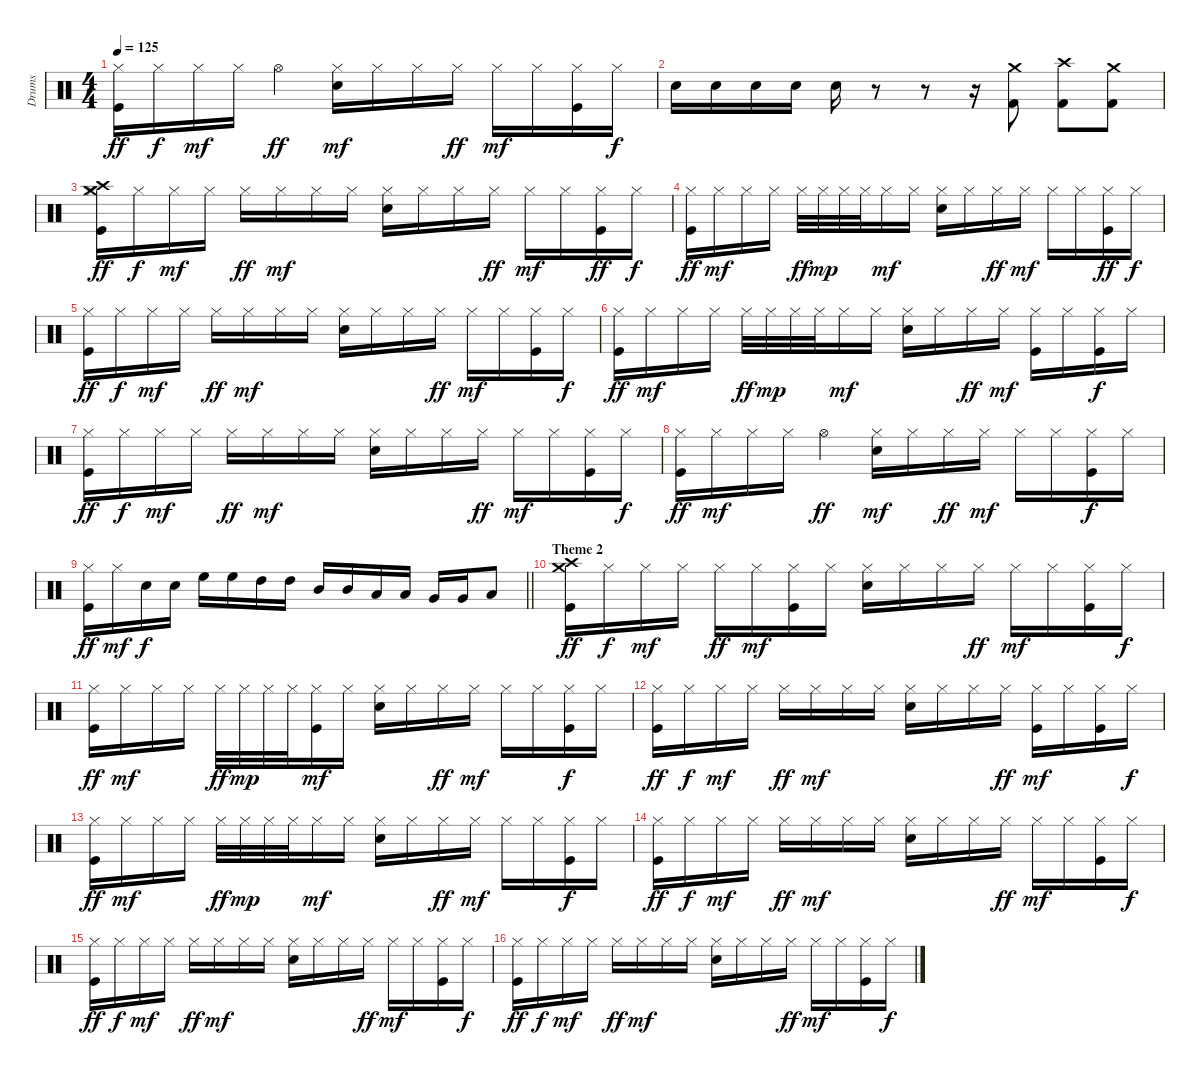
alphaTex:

\track ("Drums" "Drums") {instrument percussion}
\staff {score}
\articulation defaults
\ts (4 4)
\tempo 125
\clef neutral
\ks c
("Hi-Hat (closed)" "Kick (hit)").16{dy ff} "Hi-Hat (closed)".16{dy f} "Hi-Hat (closed)".16{dy mf} "Hi-Hat (closed)".16 "Hi-Hat (open)".4{dy ff} ("Hi-Hat (closed)" "Electric Snare (hit)").16{dy mf} "Hi-Hat (closed)".16 "Hi-Hat (closed)".16 "Hi-Hat (closed)".16{dy ff} "Hi-Hat (closed)".16{dy mf} "Hi-Hat (closed)".16 ("Hi-Hat (closed)" "Kick (hit)").16 "Hi-Hat (closed)".16{dy f} |
"Electric Snare (hit)".16 "Electric Snare (hit)".16 "Electric Snare (hit)".16 "Electric Snare (hit)".16 "Electric Snare (hit)".16 r.8 r.8 r.16 ("Crash medium (hit)" "Kick (hit) 2").8 ("Crash high (hit)" "Kick (hit) 2").8 ("Crash medium (hit)" "Kick (hit) 2").8 |
("Hi-Hat (closed)" "Kick (hit)" "Crash medium (hit)" "Crash high (hit)").16{dy ff} "Hi-Hat (closed)".16{dy f} "Hi-Hat (closed)".16{dy mf} "Hi-Hat (closed)".16 "Hi-Hat (closed)".16{dy ff} "Hi-Hat (closed)".16{dy mf} "Hi-Hat (closed)".16 "Hi-Hat (closed)".16 ("Hi-Hat (closed)" "Electric Snare (hit)").16 "Hi-Hat (closed)".16 "Hi-Hat (closed)".16 "Hi-Hat (closed)".16{dy ff} "Hi-Hat (closed)".16{dy mf} "Hi-Hat (closed)".16 ("Hi-Hat (closed)" "Kick (hit)").16{dy ff} "Hi-Hat (closed)".16{dy f} |
("Kick (hit)" "Hi-Hat (closed)").16{dy ff} "Hi-Hat (closed)".16{dy mf} "Hi-Hat (closed)".16 "Hi-Hat (closed)".16 "Hi-Hat (closed)".32{dy ff} "Hi-Hat (closed)".32{dy mp} "Hi-Hat (closed)".32 "Hi-Hat (closed)".32 "Hi-Hat (closed)".16{dy mf} "Hi-Hat (closed)".16 ("Hi-Hat (closed)" "Electric Snare (hit)").16 "Hi-Hat (closed)".16 "Hi-Hat (closed)".16{dy ff} "Hi-Hat (closed)".16{dy mf} "Hi-Hat (closed)".16 "Hi-Hat (closed)".16 ("Hi-Hat (closed)" "Kick (hit)").16{dy ff} "Hi-Hat (closed)".16{dy f} |
("Hi-Hat (closed)" "Kick (hit)").16{dy ff} "Hi-Hat (closed)".16{dy f} "Hi-Hat (closed)".16{dy mf} "Hi-Hat (closed)".16 "Hi-Hat (closed)".16{dy ff} "Hi-Hat (closed)".16{dy mf} "Hi-Hat (closed)".16 "Hi-Hat (closed)".16 ("Hi-Hat (closed)" "Electric Snare (hit)").16 "Hi-Hat (closed)".16 "Hi-Hat (closed)".16 "Hi-Hat (closed)".16{dy ff} "Hi-Hat (closed)".16{dy mf} "Hi-Hat (closed)".16 ("Hi-Hat (closed)" "Kick (hit)").16 "Hi-Hat (closed)".16{dy f} |
("Kick (hit)" "Hi-Hat (closed)").16{dy ff} "Hi-Hat (closed)".16{dy mf} "Hi-Hat (closed)".16 "Hi-Hat (closed)".16 "Hi-Hat (closed)".32{dy ff} "Hi-Hat (closed)".32{dy mp} "Hi-Hat (closed)".32 "Hi-Hat (closed)".32 "Hi-Hat (closed)".16{dy mf} "Hi-Hat (closed)".16 ("Hi-Hat (closed)" "Electric Snare (hit)").16 "Hi-Hat (closed)".16 "Hi-Hat (closed)".16{dy ff} "Hi-Hat (closed)".16{dy mf} ("Hi-Hat (closed)" "Kick (hit)").16 "Hi-Hat (closed)".16 ("Hi-Hat (closed)" "Kick (hit)").16{dy f} "Hi-Hat (closed)".16 |
("Hi-Hat (closed)" "Kick (hit)").16{dy ff} "Hi-Hat (closed)".16{dy f} "Hi-Hat (closed)".16{dy mf} "Hi-Hat (closed)".16 "Hi-Hat (closed)".16{dy ff} "Hi-Hat (closed)".16{dy mf} "Hi-Hat (closed)".16 "Hi-Hat (closed)".16 ("Hi-Hat (closed)" "Electric Snare (hit)").16 "Hi-Hat (closed)".16 "Hi-Hat (closed)".16 "Hi-Hat (closed)".16{dy ff} "Hi-Hat (closed)".16{dy mf} "Hi-Hat (closed)".16 ("Hi-Hat (closed)" "Kick (hit)").16 "Hi-Hat (closed)".16{dy f} |
("Kick (hit)" "Hi-Hat (closed)").16{dy ff} "Hi-Hat (closed)".16{dy mf} "Hi-Hat (closed)".16 "Hi-Hat (closed)".16 "Hi-Hat (open)".4{dy ff} ("Hi-Hat (closed)" "Electric Snare (hit)").16{dy mf} "Hi-Hat (closed)".16 "Hi-Hat (closed)".16{dy ff} "Hi-Hat (closed)".16{dy mf} "Hi-Hat (closed)".16 "Hi-Hat (closed)".16 ("Hi-Hat (closed)" "Kick (hit)").16{dy f} "Hi-Hat (closed)".16 |
\barLineRight lightlight
("Kick (hit)" "Hi-Hat (closed)").16{dy ff} "Hi-Hat (closed)".16{dy mf} "Electric Snare (hit)".16{dy f} "Electric Snare (hit)".16 "High Floor Tom (hit)".16 "High Floor Tom (hit)".16 "High Tom (hit)".16 "High Tom (hit)".16 "Mid Tom (hit)".16 "Mid Tom (hit)".16 "Low Tom (hit)".16 "Low Tom (hit)".16 "Very Low Tom (hit)".16 "Very Low Tom (hit)".16 "Low Floor Tom (hit)".8 |
\section ("" "Theme 2")
("Kick (hit)" "Crash high (hit)" "Crash medium (hit)").16{dy ff} "Hi-Hat (closed)".16{dy f} "Hi-Hat (closed)".16{dy mf} "Hi-Hat (closed)".16 "Hi-Hat (closed)".16{dy ff} "Hi-Hat (closed)".16{dy mf} ("Hi-Hat (closed)" "Kick (hit)").16 "Hi-Hat (closed)".16 ("Hi-Hat (closed)" "Electric Snare (hit)").16 "Hi-Hat (closed)".16 "Hi-Hat (closed)".16 "Hi-Hat (closed)".16{dy ff} "Hi-Hat (closed)".16{dy mf} "Hi-Hat (closed)".16 ("Hi-Hat (closed)" "Kick (hit)").16 "Hi-Hat (closed)".16{dy f} |
("Kick (hit)" "Hi-Hat (closed)").16{dy ff} "Hi-Hat (closed)".16{dy mf} "Hi-Hat (closed)".16 "Hi-Hat (closed)".16 "Hi-Hat (closed)".32{dy ff} "Hi-Hat (closed)".32{dy mp} "Hi-Hat (closed)".32 "Hi-Hat (closed)".32 ("Hi-Hat (closed)" "Kick (hit)").16{dy mf} "Hi-Hat (closed)".16 ("Hi-Hat (closed)" "Electric Snare (hit)").16 "Hi-Hat (closed)".16 "Hi-Hat (closed)".16{dy ff} "Hi-Hat (closed)".16{dy mf} "Hi-Hat (closed)".16 "Hi-Hat (closed)".16 ("Hi-Hat (closed)" "Kick (hit)").16{dy f} "Hi-Hat (closed)".16 |
("Hi-Hat (closed)" "Kick (hit)").16{dy ff} "Hi-Hat (closed)".16{dy f} "Hi-Hat (closed)".16{dy mf} "Hi-Hat (closed)".16 "Hi-Hat (closed)".16{dy ff} "Hi-Hat (closed)".16{dy mf} "Hi-Hat (closed)".16 "Hi-Hat (closed)".16 ("Hi-Hat (closed)" "Electric Snare (hit)").16 "Hi-Hat (closed)".16 "Hi-Hat (closed)".16 "Hi-Hat (closed)".16{dy ff} ("Hi-Hat (closed)" "Kick (hit)").16{dy mf} "Hi-Hat (closed)".16 ("Hi-Hat (closed)" "Kick (hit)").16 "Hi-Hat (closed)".16{dy f} |
("Kick (hit)" "Hi-Hat (closed)").16{dy ff} "Hi-Hat (closed)".16{dy mf} "Hi-Hat (closed)".16 "Hi-Hat (closed)".16 "Hi-Hat (closed)".32{dy ff} "Hi-Hat (closed)".32{dy mp} "Hi-Hat (closed)".32 "Hi-Hat (closed)".32 "Hi-Hat (closed)".16{dy mf} "Hi-Hat (closed)".16 ("Hi-Hat (closed)" "Electric Snare (hit)").16 "Hi-Hat (closed)".16 "Hi-Hat (closed)".16{dy ff} "Hi-Hat (closed)".16{dy mf} "Hi-Hat (closed)".16 "Hi-Hat (closed)".16 ("Hi-Hat (closed)" "Kick (hit)").16{dy f} "Hi-Hat (closed)".16 |
("Hi-Hat (closed)" "Kick (hit)").16{dy ff} "Hi-Hat (closed)".16{dy f} "Hi-Hat (closed)".16{dy mf} "Hi-Hat (closed)".16 "Hi-Hat (closed)".16{dy ff} "Hi-Hat (closed)".16{dy mf} "Hi-Hat (closed)".16 "Hi-Hat (closed)".16 ("Hi-Hat (closed)" "Electric Snare (hit)").16 "Hi-Hat (closed)".16 "Hi-Hat (closed)".16 "Hi-Hat (closed)".16{dy ff} "Hi-Hat (closed)".16{dy mf} "Hi-Hat (closed)".16 ("Hi-Hat (closed)" "Kick (hit)").16 "Hi-Hat (closed)".16{dy f} |
("Hi-Hat (closed)" "Kick (hit)").16{dy ff} "Hi-Hat (closed)".16{dy f} "Hi-Hat (closed)".16{dy mf} "Hi-Hat (closed)".16 "Hi-Hat (closed)".16{dy ff} "Hi-Hat (closed)".16{dy mf} "Hi-Hat (closed)".16 "Hi-Hat (closed)".16 ("Hi-Hat (closed)" "Electric Snare (hit)").16 "Hi-Hat (closed)".16 "Hi-Hat (closed)".16 "Hi-Hat (closed)".16{dy ff} "Hi-Hat (closed)".16{dy mf} "Hi-Hat (closed)".16 ("Hi-Hat (closed)" "Kick (hit)").16 "Hi-Hat (closed)".16{dy f} |
("Hi-Hat (closed)" "Kick (hit)").16{dy ff} "Hi-Hat (closed)".16{dy f} "Hi-Hat (closed)".16{dy mf} "Hi-Hat (closed)".16 "Hi-Hat (closed)".16{dy ff} "Hi-Hat (closed)".16{dy mf} "Hi-Hat (closed)".16 "Hi-Hat (closed)".16 ("Hi-Hat (closed)" "Electric Snare (hit)").16 "Hi-Hat (closed)".16 "Hi-Hat (closed)".16 "Hi-Hat (closed)".16{dy ff} "Hi-Hat (closed)".16{dy mf} "Hi-Hat (closed)".16 ("Hi-Hat (closed)" "Kick (hit)").16 "Hi-Hat (closed)".16{dy f}
